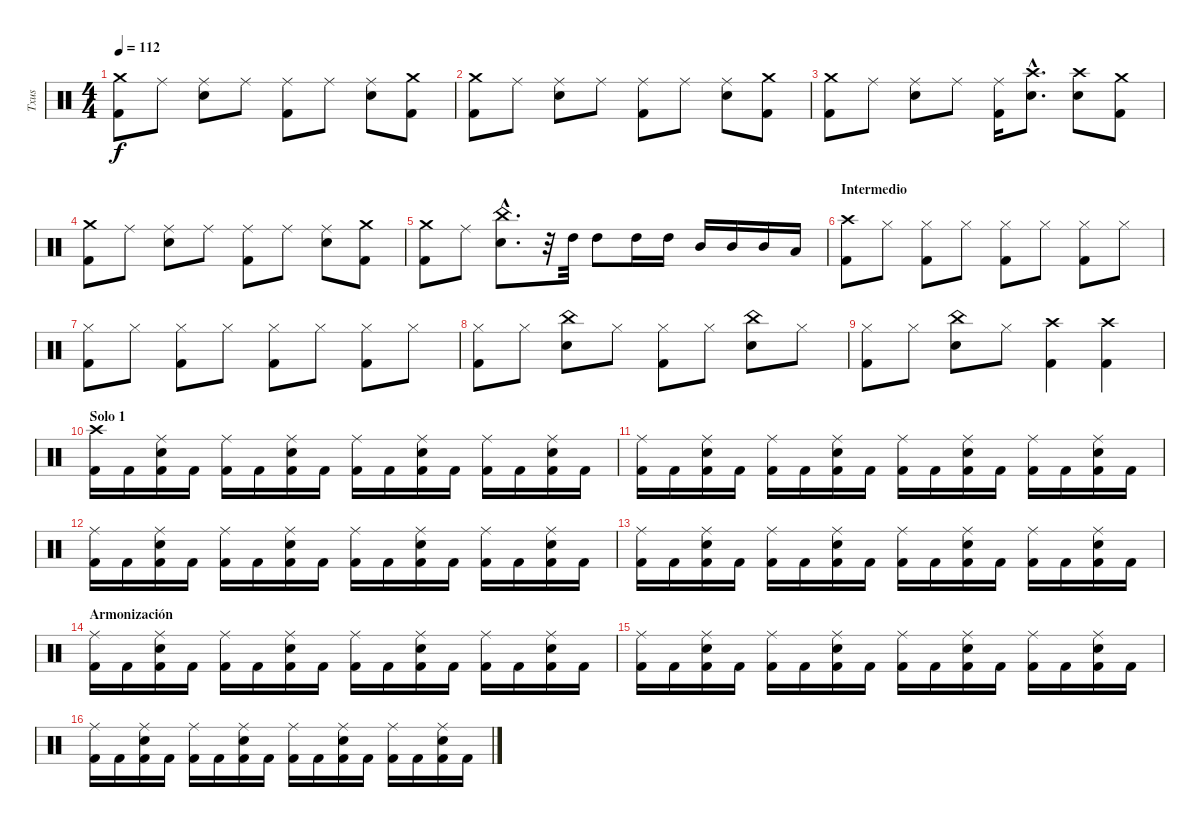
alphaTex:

\track ("Txus" "Txus") {instrument percussion}
\staff {score}
\articulation defaults
\ts (4 4)
\tempo 112
\clef neutral
\ks c
("Kick (hit) 2" "Crash medium (hit)").8{dy f} "Ride (middle)".8 ("Electric Snare (hit)" "Ride (middle)").8 "Ride (middle)".8 ("Kick (hit) 2" "Ride (middle)").8 "Ride (middle)".8 ("Electric Snare (hit)" "Ride (middle)").8 ("Kick (hit) 2" "Crash medium (hit)").8 |
("Kick (hit) 2" "Crash medium (hit)").8 "Ride (middle)".8 ("Electric Snare (hit)" "Ride (middle)").8 "Ride (middle)".8 ("Kick (hit) 2" "Ride (middle)").8 "Ride (middle)".8 ("Electric Snare (hit)" "Ride (middle)").8 ("Kick (hit) 2" "Crash medium (hit)").8 |
("Kick (hit) 2" "Crash medium (hit)").8 "Ride (middle)".8 ("Electric Snare (hit)" "Ride (middle)").8 "Ride (middle)".8 ("Kick (hit) 2" "Ride (middle)").16 ("Electric Snare (hit)"{hac} "Crash high (hit)"{hac}).8{d} ("Electric Snare (hit)" "Crash high (hit)").8 ("Kick (hit) 2" "Crash medium (hit)").8 |
("Kick (hit) 2" "Crash medium (hit)").8 "Ride (middle)".8 ("Electric Snare (hit)" "Ride (middle)").8 "Ride (middle)".8 ("Kick (hit) 2" "Ride (middle)").8 "Ride (middle)".8 ("Electric Snare (hit)" "Ride (middle)").8 ("Kick (hit) 2" "Crash medium (hit)").8 |
("Kick (hit) 2" "Crash medium (hit)").8 "Ride (middle)".8 ("Electric Snare (hit)"{hac} "China (hit)"{hac}).8{d} r.32 "High Tom (hit)".32 "High Tom (hit)".8 "High Tom (hit)".16 "High Tom (hit)".16 "Mid Tom (hit)".16 "Mid Tom (hit)".16 "Mid Tom (hit)".16 "Low Tom (hit)".16 |
\section ("" "Intermedio")
("Crash high (hit)" "Kick (hit) 2").8 "Hi-Hat (closed)".8 ("Hi-Hat (closed)" "Kick (hit) 2").8 "Hi-Hat (closed)".8 ("Hi-Hat (closed)" "Kick (hit) 2").8 "Hi-Hat (closed)".8 ("Hi-Hat (closed)" "Kick (hit) 2").8 "Hi-Hat (closed)".8 |
("Hi-Hat (closed)" "Kick (hit) 2").8 "Hi-Hat (closed)".8 ("Hi-Hat (closed)" "Kick (hit) 2").8 "Hi-Hat (closed)".8 ("Hi-Hat (closed)" "Kick (hit) 2").8 "Hi-Hat (closed)".8 ("Hi-Hat (closed)" "Kick (hit) 2").8 "Hi-Hat (closed)".8 |
("Hi-Hat (closed)" "Kick (hit) 2").8 "Hi-Hat (closed)".8 ("China (hit)" "Electric Snare (hit)").8 "Hi-Hat (closed)".8 ("Hi-Hat (closed)" "Kick (hit) 2").8 "Hi-Hat (closed)".8 ("China (hit)" "Electric Snare (hit)").8 "Hi-Hat (closed)".8 |
("Hi-Hat (closed)" "Kick (hit) 2").8 "Hi-Hat (closed)".8 ("China (hit)" "Electric Snare (hit)").8 "Hi-Hat (closed)".8 ("Crash high (hit)" "Kick (hit) 2").4 ("Crash high (hit)" "Kick (hit) 2").4 |
\section ("" "Solo 1")
("Kick (hit) 2" "Crash high (hit)").16 "Kick (hit) 2".16 ("Kick (hit) 2" "Ride (middle)" "Electric Snare (hit)").16 "Kick (hit) 2".16 ("Kick (hit) 2" "Ride (middle)").16 "Kick (hit) 2".16 ("Kick (hit) 2" "Ride (middle)" "Electric Snare (hit)").16 "Kick (hit) 2".16 ("Kick (hit) 2" "Ride (middle)").16 "Kick (hit) 2".16 ("Kick (hit) 2" "Ride (middle)" "Electric Snare (hit)").16 "Kick (hit) 2".16 ("Kick (hit) 2" "Ride (middle)").16 "Kick (hit) 2".16 ("Kick (hit) 2" "Ride (middle)" "Electric Snare (hit)").16 "Kick (hit) 2".16 |
("Kick (hit) 2" "Ride (middle)").16 "Kick (hit) 2".16 ("Kick (hit) 2" "Ride (middle)" "Electric Snare (hit)").16 "Kick (hit) 2".16 ("Kick (hit) 2" "Ride (middle)").16 "Kick (hit) 2".16 ("Kick (hit) 2" "Ride (middle)" "Electric Snare (hit)").16 "Kick (hit) 2".16 ("Kick (hit) 2" "Ride (middle)").16 "Kick (hit) 2".16 ("Kick (hit) 2" "Ride (middle)" "Electric Snare (hit)").16 "Kick (hit) 2".16 ("Kick (hit) 2" "Ride (middle)").16 "Kick (hit) 2".16 ("Kick (hit) 2" "Ride (middle)" "Electric Snare (hit)").16 "Kick (hit) 2".16 |
("Kick (hit) 2" "Ride (middle)").16 "Kick (hit) 2".16 ("Kick (hit) 2" "Ride (middle)" "Electric Snare (hit)").16 "Kick (hit) 2".16 ("Kick (hit) 2" "Ride (middle)").16 "Kick (hit) 2".16 ("Kick (hit) 2" "Ride (middle)" "Electric Snare (hit)").16 "Kick (hit) 2".16 ("Kick (hit) 2" "Ride (middle)").16 "Kick (hit) 2".16 ("Kick (hit) 2" "Ride (middle)" "Electric Snare (hit)").16 "Kick (hit) 2".16 ("Kick (hit) 2" "Ride (middle)").16 "Kick (hit) 2".16 ("Kick (hit) 2" "Ride (middle)" "Electric Snare (hit)").16 "Kick (hit) 2".16 |
("Kick (hit) 2" "Ride (middle)").16 "Kick (hit) 2".16 ("Kick (hit) 2" "Ride (middle)" "Electric Snare (hit)").16 "Kick (hit) 2".16 ("Kick (hit) 2" "Ride (middle)").16 "Kick (hit) 2".16 ("Kick (hit) 2" "Ride (middle)" "Electric Snare (hit)").16 "Kick (hit) 2".16 ("Kick (hit) 2" "Ride (middle)").16 "Kick (hit) 2".16 ("Kick (hit) 2" "Ride (middle)" "Electric Snare (hit)").16 "Kick (hit) 2".16 ("Kick (hit) 2" "Ride (middle)").16 "Kick (hit) 2".16 ("Kick (hit) 2" "Ride (middle)" "Electric Snare (hit)").16 "Kick (hit) 2".16 |
\section ("" "Armonización")
("Kick (hit) 2" "Ride (middle)").16 "Kick (hit) 2".16 ("Kick (hit) 2" "Ride (middle)" "Electric Snare (hit)").16 "Kick (hit) 2".16 ("Kick (hit) 2" "Ride (middle)").16 "Kick (hit) 2".16 ("Kick (hit) 2" "Ride (middle)" "Electric Snare (hit)").16 "Kick (hit) 2".16 ("Kick (hit) 2" "Ride (middle)").16 "Kick (hit) 2".16 ("Kick (hit) 2" "Ride (middle)" "Electric Snare (hit)").16 "Kick (hit) 2".16 ("Kick (hit) 2" "Ride (middle)").16 "Kick (hit) 2".16 ("Kick (hit) 2" "Ride (middle)" "Electric Snare (hit)").16 "Kick (hit) 2".16 |
("Kick (hit) 2" "Ride (middle)").16 "Kick (hit) 2".16 ("Kick (hit) 2" "Ride (middle)" "Electric Snare (hit)").16 "Kick (hit) 2".16 ("Kick (hit) 2" "Ride (middle)").16 "Kick (hit) 2".16 ("Kick (hit) 2" "Ride (middle)" "Electric Snare (hit)").16 "Kick (hit) 2".16 ("Kick (hit) 2" "Ride (middle)").16 "Kick (hit) 2".16 ("Kick (hit) 2" "Ride (middle)" "Electric Snare (hit)").16 "Kick (hit) 2".16 ("Kick (hit) 2" "Ride (middle)").16 "Kick (hit) 2".16 ("Kick (hit) 2" "Ride (middle)" "Electric Snare (hit)").16 "Kick (hit) 2".16 |
("Kick (hit) 2" "Ride (middle)").16 "Kick (hit) 2".16 ("Kick (hit) 2" "Ride (middle)" "Electric Snare (hit)").16 "Kick (hit) 2".16 ("Kick (hit) 2" "Ride (middle)").16 "Kick (hit) 2".16 ("Kick (hit) 2" "Ride (middle)" "Electric Snare (hit)").16 "Kick (hit) 2".16 ("Kick (hit) 2" "Ride (middle)").16 "Kick (hit) 2".16 ("Kick (hit) 2" "Ride (middle)" "Electric Snare (hit)").16 "Kick (hit) 2".16 ("Kick (hit) 2" "Ride (middle)").16 "Kick (hit) 2".16 ("Kick (hit) 2" "Ride (middle)" "Electric Snare (hit)").16 "Kick (hit) 2".16
